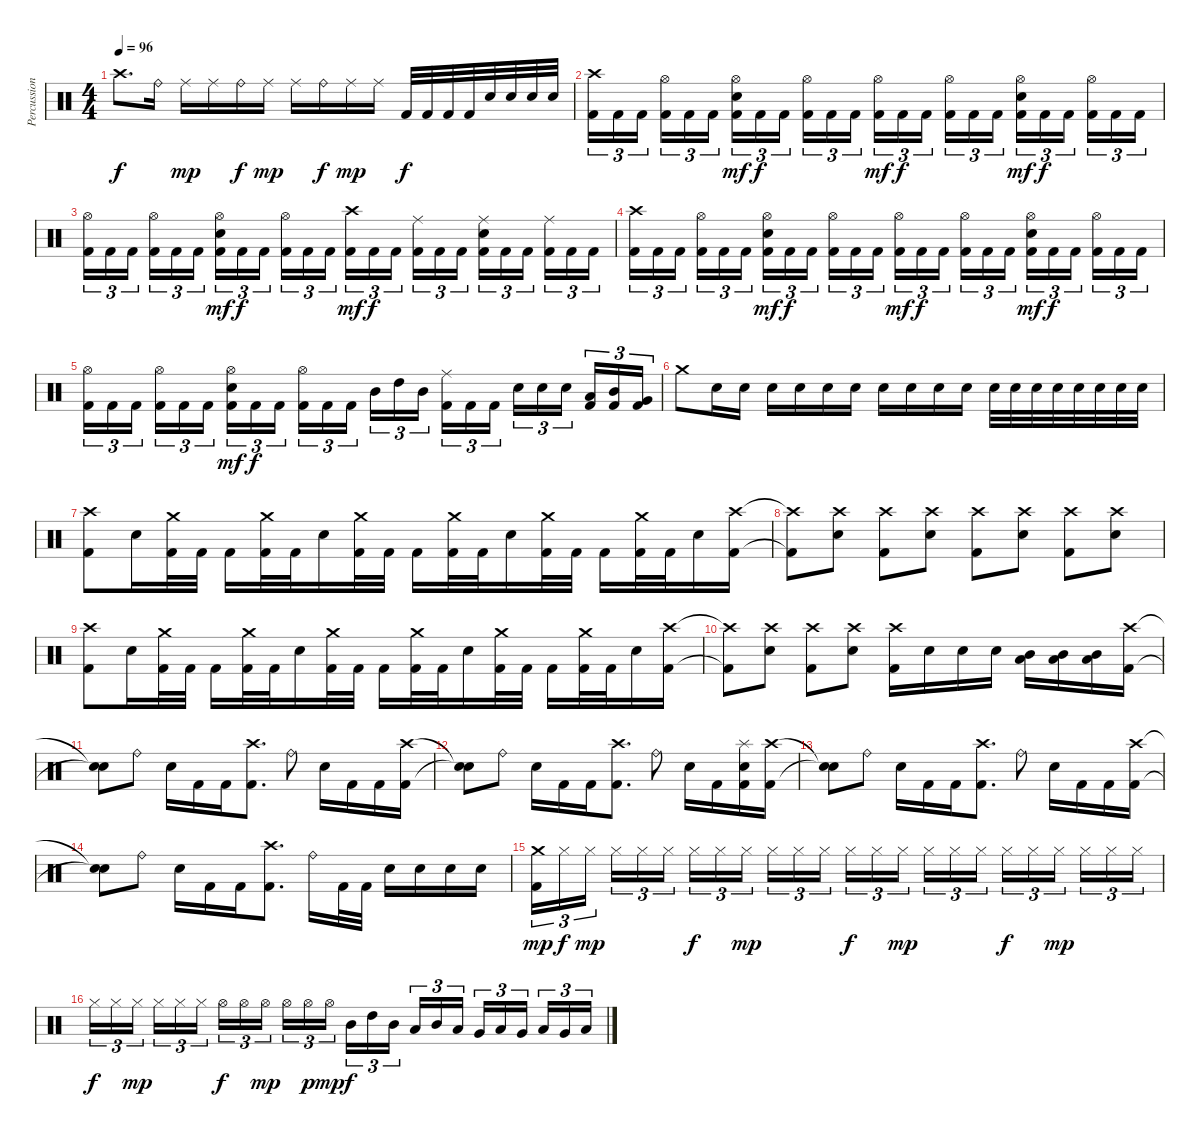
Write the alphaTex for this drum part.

\track ("Percussion" "Percussion") {instrument percussion}
\staff {score}
\articulation defaults
\ts (4 4)
\tempo 96
\clef neutral
\ks c "Crash high (hit)".8{d dy f} "Ride (bell)".16 "Ride (middle)".16{dy mp} "Ride (middle)".16 "Ride (bell)".16{dy f} "Ride (middle)".16{dy mp} "Ride (middle)".16 "Ride (bell)".16{dy f} "Ride (middle)".16{dy mp} "Ride (middle)".16 "Kick (hit) 2".32{dy f} "Kick (hit) 2".32 "Kick (hit) 2".32 "Kick (hit) 2".32 "Snare (hit) 2".32 "Snare (hit) 2".32 "Snare (hit) 2".32 "Snare (hit) 2".32
|
("Crash high (hit)" "Kick (hit) 2").16{tu (3 2)} "Kick (hit) 2".16{tu (3 2)} "Kick (hit) 2".16{tu (3 2) beam splitsecondary} ("Hi-Hat (open)" "Kick (hit) 2").16{tu (3 2)} "Kick (hit) 2".16{tu (3 2)} "Kick (hit) 2".16{tu (3 2)} ("Hi-Hat (open)" "Snare (hit) 2" "Kick (hit) 2").16{tu (3 2) dy mf} "Kick (hit) 2".16{tu (3 2) dy f} "Kick (hit) 2".16{tu (3 2) beam splitsecondary} ("Hi-Hat (open)" "Kick (hit) 2").16{tu (3 2)} "Kick (hit) 2".16{tu (3 2)} "Kick (hit) 2".16{tu (3 2)} ("Hi-Hat (open)" "Kick (hit) 2").16{tu (3 2) dy mf} "Kick (hit) 2".16{tu (3 2) dy f} "Kick (hit) 2".16{tu (3 2) beam splitsecondary} ("Hi-Hat (open)" "Kick (hit) 2").16{tu (3 2)} "Kick (hit) 2".16{tu (3 2)} "Kick (hit) 2".16{tu (3 2)} ("Hi-Hat (open)" "Snare (hit) 2" "Kick (hit) 2").16{tu (3 2) dy mf} "Kick (hit) 2".16{tu (3 2) dy f} "Kick (hit) 2".16{tu (3 2) beam splitsecondary} ("Hi-Hat (open)" "Kick (hit) 2").16{tu (3 2)} "Kick (hit) 2".16{tu (3 2)} "Kick (hit) 2".16{tu (3 2)} |
("Hi-Hat (open)" "Kick (hit) 2").16{tu (3 2)} "Kick (hit) 2".16{tu (3 2)} "Kick (hit) 2".16{tu (3 2) beam splitsecondary} ("Hi-Hat (open)" "Kick (hit) 2").16{tu (3 2)} "Kick (hit) 2".16{tu (3 2)} "Kick (hit) 2".16{tu (3 2)} ("Hi-Hat (open)" "Snare (hit) 2" "Kick (hit) 2").16{tu (3 2) dy mf} "Kick (hit) 2".16{tu (3 2) dy f} "Kick (hit) 2".16{tu (3 2) beam splitsecondary} ("Hi-Hat (open)" "Kick (hit) 2").16{tu (3 2)} "Kick (hit) 2".16{tu (3 2)} "Kick (hit) 2".16{tu (3 2)} ("Crash high (hit)" "Kick (hit) 2").16{tu (3 2) dy mf} "Kick (hit) 2".16{tu (3 2) dy f} "Kick (hit) 2".16{tu (3 2) beam splitsecondary} ("Ride (middle)" "Kick (hit) 2").16{tu (3 2)} "Kick (hit) 2".16{tu (3 2)} "Kick (hit) 2".16{tu (3 2)} ("Ride (middle)" "Snare (hit) 2" "Kick (hit) 2").16{tu (3 2)} "Kick (hit) 2".16{tu (3 2)} "Kick (hit) 2".16{tu (3 2) beam splitsecondary} ("Ride (middle)" "Kick (hit) 2").16{tu (3 2)} "Kick (hit) 2".16{tu (3 2)} "Kick (hit) 2".16{tu (3 2)} |
("Crash high (hit)" "Kick (hit) 2").16{tu (3 2)} "Kick (hit) 2".16{tu (3 2)} "Kick (hit) 2".16{tu (3 2) beam splitsecondary} ("Hi-Hat (open)" "Kick (hit) 2").16{tu (3 2)} "Kick (hit) 2".16{tu (3 2)} "Kick (hit) 2".16{tu (3 2)} ("Hi-Hat (open)" "Snare (hit) 2" "Kick (hit) 2").16{tu (3 2) dy mf} "Kick (hit) 2".16{tu (3 2) dy f} "Kick (hit) 2".16{tu (3 2) beam splitsecondary} ("Hi-Hat (open)" "Kick (hit) 2").16{tu (3 2)} "Kick (hit) 2".16{tu (3 2)} "Kick (hit) 2".16{tu (3 2)} ("Hi-Hat (open)" "Kick (hit) 2").16{tu (3 2) dy mf} "Kick (hit) 2".16{tu (3 2) dy f} "Kick (hit) 2".16{tu (3 2) beam splitsecondary} ("Hi-Hat (open)" "Kick (hit) 2").16{tu (3 2)} "Kick (hit) 2".16{tu (3 2)} "Kick (hit) 2".16{tu (3 2)} ("Hi-Hat (open)" "Snare (hit) 2" "Kick (hit) 2").16{tu (3 2) dy mf} "Kick (hit) 2".16{tu (3 2) dy f} "Kick (hit) 2".16{tu (3 2) beam splitsecondary} ("Hi-Hat (open)" "Kick (hit) 2").16{tu (3 2)} "Kick (hit) 2".16{tu (3 2)} "Kick (hit) 2".16{tu (3 2)} |
("Hi-Hat (open)" "Kick (hit) 2").16{tu (3 2)} "Kick (hit) 2".16{tu (3 2)} "Kick (hit) 2".16{tu (3 2) beam splitsecondary} ("Hi-Hat (open)" "Kick (hit) 2").16{tu (3 2)} "Kick (hit) 2".16{tu (3 2)} "Kick (hit) 2".16{tu (3 2)} ("Hi-Hat (open)" "Snare (hit) 2" "Kick (hit) 2").16{tu (3 2) dy mf} "Kick (hit) 2".16{tu (3 2) dy f} "Kick (hit) 2".16{tu (3 2) beam splitsecondary} ("Hi-Hat (open)" "Kick (hit) 2").16{tu (3 2)} "Kick (hit) 2".16{tu (3 2)} "Kick (hit) 2".16{tu (3 2)} "Mid Tom (hit)".16{tu (3 2)} "High Tom (hit)".16{tu (3 2)} "Mid Tom (hit)".16{tu (3 2) beam splitsecondary} ("Ride (middle)" "Kick (hit) 2").16{tu (3 2)} "Kick (hit) 2".16{tu (3 2)} "Kick (hit) 2".16{tu (3 2)} "Snare (hit) 2".16{tu (3 2)} "Snare (hit) 2".16{tu (3 2)} "Snare (hit) 2".16{tu (3 2) beam splitsecondary} ("Low Tom (hit)" "Kick (hit) 2").16{tu (3 2)} ("Mid Tom (hit)" "Kick (hit) 2").16{tu (3 2)} ("Very Low Tom (hit)" "Kick (hit) 2").16{tu (3 2)} |
"Crash medium (hit)".8 "Snare (hit) 2".16 "Snare (hit) 2".16 "Snare (hit) 2".16 "Snare (hit) 2".16 "Snare (hit) 2".16 "Snare (hit) 2".16 "Snare (hit) 2".16 "Snare (hit) 2".16 "Snare (hit) 2".16 "Snare (hit) 2".16 "Snare (hit) 2".32 "Snare (hit) 2".32 "Snare (hit) 2".32 "Snare (hit) 2".32 "Snare (hit) 2".32 "Snare (hit) 2".32 "Snare (hit) 2".32 "Snare (hit) 2".32 |
("Crash high (hit)" "Kick (hit) 2").8 "Snare (hit) 2".16 ("Crash medium (hit)" "Kick (hit) 2").32 "Kick (hit) 2".32 "Kick (hit) 2".16 ("Crash medium (hit)" "Kick (hit) 2").32 "Kick (hit) 2".32 "Snare (hit) 2".16 ("Crash medium (hit)" "Kick (hit) 2").32 "Kick (hit) 2".32 "Kick (hit) 2".16 ("Crash medium (hit)" "Kick (hit) 2").32 "Kick (hit) 2".32 "Snare (hit) 2".16 ("Crash medium (hit)" "Kick (hit) 2").32 "Kick (hit) 2".32 "Kick (hit) 2".16 ("Crash medium (hit)" "Kick (hit) 2").32 "Kick (hit) 2".32 "Snare (hit) 2".16 ("Crash high (hit)" "Kick (hit) 2").16 |
("Crash high (hit)"{t} "Kick (hit) 2"{t}).8 ("Crash high (hit)" "Snare (hit) 2").8 ("Crash high (hit)" "Kick (hit) 2").8 ("Crash high (hit)" "Snare (hit) 2").8 ("Crash high (hit)" "Kick (hit) 2").8 ("Crash high (hit)" "Snare (hit) 2").8 ("Crash high (hit)" "Kick (hit) 2").8 ("Crash high (hit)" "Snare (hit) 2").8 |
("Crash high (hit)" "Kick (hit) 2").8 "Snare (hit) 2".16 ("Crash medium (hit)" "Kick (hit) 2").32 "Kick (hit) 2".32 "Kick (hit) 2".16 ("Crash medium (hit)" "Kick (hit) 2").32 "Kick (hit) 2".32 "Snare (hit) 2".16 ("Crash medium (hit)" "Kick (hit) 2").32 "Kick (hit) 2".32 "Kick (hit) 2".16 ("Crash medium (hit)" "Kick (hit) 2").32 "Kick (hit) 2".32 "Snare (hit) 2".16 ("Crash medium (hit)" "Kick (hit) 2").32 "Kick (hit) 2".32 "Kick (hit) 2".16 ("Crash medium (hit)" "Kick (hit) 2").32 "Kick (hit) 2".32 "Snare (hit) 2".16 ("Crash high (hit)" "Kick (hit) 2").16 |
("Crash high (hit)"{t} "Kick (hit) 2"{t}).8 ("Crash high (hit)" "Snare (hit) 2").8 ("Crash high (hit)" "Kick (hit) 2").8 ("Crash high (hit)" "Snare (hit) 2").8 ("Crash high (hit)" "Kick (hit) 2").16 "Snare (hit) 2".16 "Snare (hit) 2".16 "Snare (hit) 2".16 ("Mid Tom (hit)" "Low Tom (hit)").16 ("Mid Tom (hit)" "Low Tom (hit)").16 ("Mid Tom (hit)" "Low Tom (hit)").16 ("Crash high (hit)" "Kick (hit) 2").16 |
("Snare (hit)"{t} "Snare (hit)"{t}).8 "Ride (bell)".8 "Snare (hit) 2".16 "Kick (hit) 2".16 "Kick (hit) 2".16 ("Crash high (hit)" "Kick (hit) 2").8{d} "Ride (bell)".8 "Snare (hit) 2".16 "Kick (hit) 2".16 "Kick (hit) 2".16 ("Crash high (hit)" "Kick (hit) 2").16 |
("Snare (hit)"{t} "Snare (hit)"{t}).8 "Ride (bell)".8 "Snare (hit) 2".16 "Kick (hit) 2".16 "Kick (hit) 2".16 ("Crash high (hit)" "Kick (hit) 2").8{d} "Ride (bell)".8 "Snare (hit) 2".16 "Kick (hit) 2".16 ("Splash (hit)" "Snare (hit) 2" "Kick (hit) 2").16 ("Crash high (hit)" "Kick (hit) 2").16 |
("Snare (hit)"{t} "Snare (hit)"{t}).8 "Ride (bell)".8 "Snare (hit) 2".16 "Kick (hit) 2".16 "Kick (hit) 2".16 ("Crash high (hit)" "Kick (hit) 2").8{d} "Ride (bell)".8 "Snare (hit) 2".16 "Kick (hit) 2".16 "Kick (hit) 2".16 ("Crash high (hit)" "Kick (hit) 2").16 |
("Snare (hit)"{t} "Snare (hit)"{t}).8 "Ride (bell)".8 "Snare (hit) 2".16 "Kick (hit) 2".16 "Kick (hit) 2".16 ("Crash high (hit)" "Kick (hit) 2").8{d} "Ride (bell)".16 "Kick (hit) 2".32 "Kick (hit) 2".32 "Snare (hit) 2".16 "Snare (hit) 2".16 "Snare (hit) 2".16 "Snare (hit) 2".16 |
("Crash medium (hit)" "Kick (hit) 2").16{tu (3 2) dy mp} "Hi-Hat (closed)".16{tu (3 2) dy f} "Hi-Hat (closed)".16{tu (3 2) dy mp beam splitsecondary} "Hi-Hat (closed)".16{tu (3 2)} "Hi-Hat (closed)".16{tu (3 2)} "Hi-Hat (closed)".16{tu (3 2)} "Hi-Hat (closed)".16{tu (3 2) dy f} "Hi-Hat (closed)".16{tu (3 2)} "Hi-Hat (closed)".16{tu (3 2) dy mp beam splitsecondary} "Hi-Hat (closed)".16{tu (3 2)} "Hi-Hat (closed)".16{tu (3 2)} "Hi-Hat (closed)".16{tu (3 2)} "Hi-Hat (closed)".16{tu (3 2) dy f} "Hi-Hat (closed)".16{tu (3 2)} "Hi-Hat (closed)".16{tu (3 2) dy mp beam splitsecondary} "Hi-Hat (closed)".16{tu (3 2)} "Hi-Hat (closed)".16{tu (3 2)} "Hi-Hat (closed)".16{tu (3 2)} "Hi-Hat (closed)".16{tu (3 2) dy f} "Hi-Hat (closed)".16{tu (3 2)} "Hi-Hat (closed)".16{tu (3 2) dy mp beam splitsecondary} "Hi-Hat (closed)".16{tu (3 2)} "Hi-Hat (closed)".16{tu (3 2)} "Hi-Hat (closed)".16{tu (3 2)} |
"Hi-Hat (closed)".16{tu (3 2) dy f} "Hi-Hat (closed)".16{tu (3 2)} "Hi-Hat (closed)".16{tu (3 2) dy mp beam splitsecondary} "Hi-Hat (closed)".16{tu (3 2)} "Hi-Hat (closed)".16{tu (3 2)} "Hi-Hat (closed)".16{tu (3 2)} "Hi-Hat (open)".16{tu (3 2) dy f} "Hi-Hat (open)".16{tu (3 2)} "Hi-Hat (open)".16{tu (3 2) dy mp beam splitsecondary} "Hi-Hat (open)".16{tu (3 2)} "Hi-Hat (open)".16{tu (3 2) dy p} "Hi-Hat (open)".16{tu (3 2) dy mp} "Mid Tom (hit)".16{tu (3 2) dy f} "High Tom (hit)".16{tu (3 2)} "Mid Tom (hit)".16{tu (3 2) beam splitsecondary} "Low Tom (hit)".16{tu (3 2)} "Mid Tom (hit)".16{tu (3 2)} "Low Tom (hit)".16{tu (3 2)} "Very Low Tom (hit)".16{tu (3 2)} "Low Tom (hit)".16{tu (3 2)} "Very Low Tom (hit)".16{tu (3 2) beam splitsecondary} "Low Floor Tom (hit)".16{tu (3 2)} "Very Low Tom (hit)".16{tu (3 2)} "Low Floor Tom (hit)".16{tu (3 2)}
